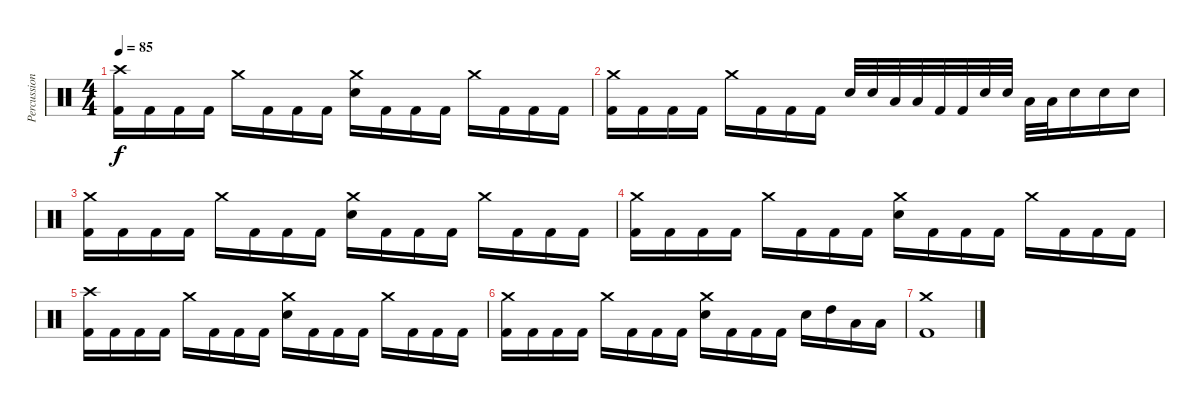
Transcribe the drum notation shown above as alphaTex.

\track ("Percussioni" "Percussion") {instrument percussion}
\staff {score}
\articulation defaults
\ts (4 4)
\tempo 85
\clef neutral
\ks c
("Crash high (hit)" "Kick (hit) 2").16{dy f} "Kick (hit) 2".16 "Kick (hit) 2".16 "Kick (hit) 2".16 "Crash medium (hit)".16 "Kick (hit) 2".16 "Kick (hit) 2".16 "Kick (hit) 2".16 ("Crash medium (hit)" "Electric Snare (hit)").16 "Kick (hit) 2".16 "Kick (hit) 2".16 "Kick (hit) 2".16 "Crash medium (hit)".16 "Kick (hit) 2".16 "Kick (hit) 2".16 "Kick (hit) 2".16 |
("Crash medium (hit)" "Kick (hit) 2").16 "Kick (hit) 2".16 "Kick (hit) 2".16 "Kick (hit) 2".16 "Crash medium (hit)".16 "Kick (hit) 2".16 "Kick (hit) 2".16 "Kick (hit) 2".16 "Electric Snare (hit)".32 "Electric Snare (hit)".32 "Low Tom (hit)".32 "Low Tom (hit)".32 "Kick (hit) 2".32 "Kick (hit) 2".32 "Electric Snare (hit)".32 "Electric Snare (hit)".32 "Low Tom (hit)".32 "Low Tom (hit)".32 "Electric Snare (hit)".16 "Electric Snare (hit)".16 "Electric Snare (hit)".16 |
("Crash medium (hit)" "Kick (hit) 2").16 "Kick (hit) 2".16 "Kick (hit) 2".16 "Kick (hit) 2".16 "Crash medium (hit)".16 "Kick (hit) 2".16 "Kick (hit) 2".16 "Kick (hit) 2".16 ("Crash medium (hit)" "Electric Snare (hit)").16 "Kick (hit) 2".16 "Kick (hit) 2".16 "Kick (hit) 2".16 "Crash medium (hit)".16 "Kick (hit) 2".16 "Kick (hit) 2".16 "Kick (hit) 2".16 |
("Crash medium (hit)" "Kick (hit) 2").16 "Kick (hit) 2".16 "Kick (hit) 2".16 "Kick (hit) 2".16 "Crash medium (hit)".16 "Kick (hit) 2".16 "Kick (hit) 2".16 "Kick (hit) 2".16 ("Crash medium (hit)" "Electric Snare (hit)").16 "Kick (hit) 2".16 "Kick (hit) 2".16 "Kick (hit) 2".16 "Crash medium (hit)".16 "Kick (hit) 2".16 "Kick (hit) 2".16 "Kick (hit) 2".16 |
("Crash high (hit)" "Kick (hit) 2").16 "Kick (hit) 2".16 "Kick (hit) 2".16 "Kick (hit) 2".16 "Crash medium (hit)".16 "Kick (hit) 2".16 "Kick (hit) 2".16 "Kick (hit) 2".16 ("Crash medium (hit)" "Electric Snare (hit)").16 "Kick (hit) 2".16 "Kick (hit) 2".16 "Kick (hit) 2".16 "Crash medium (hit)".16 "Kick (hit) 2".16 "Kick (hit) 2".16 "Kick (hit) 2".16 |
("Crash medium (hit)" "Kick (hit) 2").16 "Kick (hit) 2".16 "Kick (hit) 2".16 "Kick (hit) 2".16 "Crash medium (hit)".16 "Kick (hit) 2".16 "Kick (hit) 2".16 "Kick (hit) 2".16 ("Crash medium (hit)" "Electric Snare (hit)").16 "Kick (hit) 2".16 "Kick (hit) 2".16 "Kick (hit) 2".16 "Electric Snare (hit)".16 "High Tom (hit)".16 "Low Tom (hit)".16 "Low Tom (hit)".16 |
("Crash medium (hit)" "Kick (hit) 2").1
